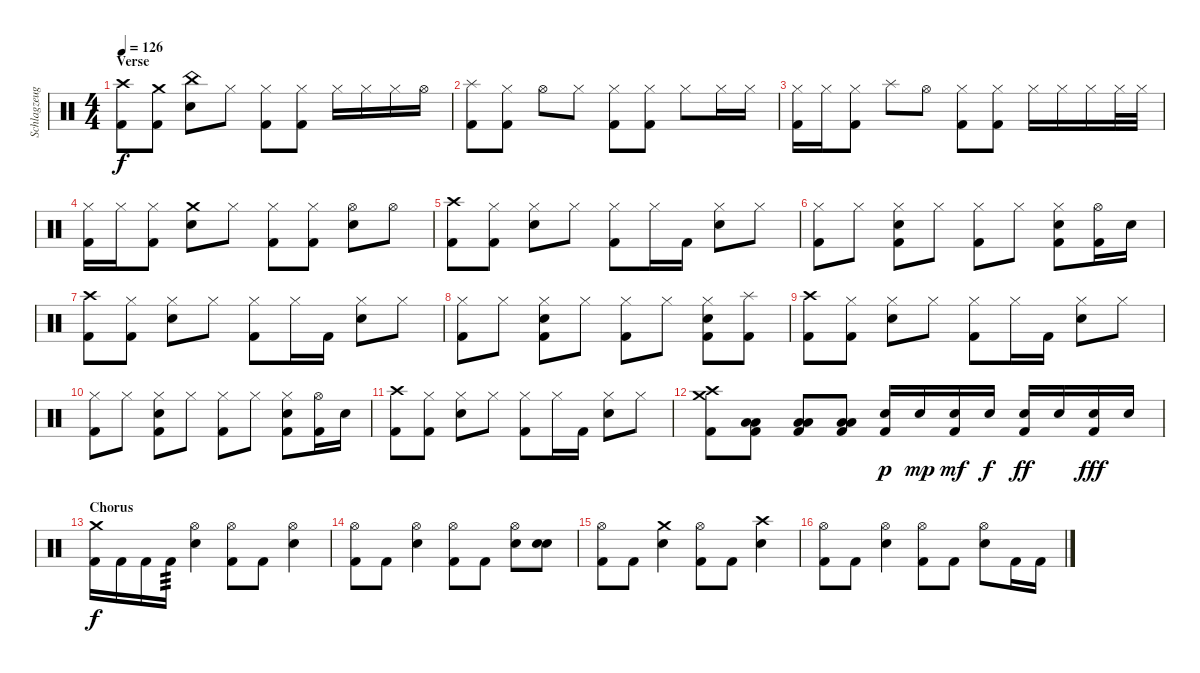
\track ("Schlagzeug" "Schlagzeug") {instrument percussion}
\staff {score}
\articulation defaults
\ts (4 4)
\section ("" "Verse")
\tempo 126
\clef neutral
\ks c
("Crash high (hit)" "Kick (hit) 2").8{dy f} ("Crash medium (hit)" "Kick (hit) 2").8 ("China (hit)" "Snare (hit) 2").8 "Hi-Hat (closed)".8 ("Hi-Hat (closed)" "Kick (hit) 2").8 ("Hi-Hat (closed)" "Kick (hit) 2").8 "Hi-Hat (closed)".16 "Hi-Hat (closed)".16 "Hi-Hat (closed)".16 "Hi-Hat (open)".16 |
("Splash (hit)" "Kick (hit) 2").8 ("Hi-Hat (closed)" "Kick (hit) 2").8 "Hi-Hat (open)".8 "Hi-Hat (closed)".8 ("Hi-Hat (closed)" "Kick (hit) 2").8 ("Hi-Hat (closed)" "Kick (hit) 2").8 "Hi-Hat (closed)".8 "Hi-Hat (closed)".16 "Hi-Hat (closed)".16 |
("Hi-Hat (closed)" "Kick (hit) 2").16 "Hi-Hat (closed)".16 ("Hi-Hat (closed)" "Kick (hit) 2").8 "Splash (hit)".8 "Hi-Hat (open)".8 ("Hi-Hat (closed)" "Kick (hit) 2").8 ("Hi-Hat (closed)" "Kick (hit) 2").8 "Hi-Hat (closed)".16 "Hi-Hat (closed)".16 "Hi-Hat (closed)".16 "Hi-Hat (closed)".32 "Hi-Hat (closed)".32 |
("Hi-Hat (closed)" "Kick (hit) 2").16 "Hi-Hat (closed)".16 ("Hi-Hat (closed)" "Kick (hit) 2").8 ("Crash medium (hit)" "Snare (hit) 2").8 "Hi-Hat (closed)".8 ("Hi-Hat (closed)" "Kick (hit) 2").8 ("Hi-Hat (closed)" "Kick (hit) 2").8 ("Hi-Hat (open)" "Snare (hit) 2").8 "Hi-Hat (open)".8 |
("Crash high (hit)" "Kick (hit) 2").8 ("Hi-Hat (closed)" "Kick (hit) 2").8 ("Hi-Hat (closed)" "Snare (hit) 2").8 "Hi-Hat (closed)".8 ("Hi-Hat (closed)" "Kick (hit) 2").8 "Hi-Hat (closed)".16 "Kick (hit) 2".16 ("Hi-Hat (closed)" "Snare (hit) 2").8 "Hi-Hat (closed)".8 |
("Hi-Hat (closed)" "Kick (hit) 2").8 "Hi-Hat (closed)".8 ("Hi-Hat (closed)" "Snare (hit) 2" "Kick (hit) 2").8 "Hi-Hat (closed)".8 ("Hi-Hat (closed)" "Kick (hit) 2").8 "Hi-Hat (closed)".8 ("Hi-Hat (closed)" "Snare (hit) 2" "Kick (hit) 2").8 ("Hi-Hat (open)" "Kick (hit) 2").16 "Snare (hit) 2".16 |
("Crash high (hit)" "Kick (hit) 2").8 ("Hi-Hat (closed)" "Kick (hit) 2").8 ("Hi-Hat (closed)" "Snare (hit) 2").8 "Hi-Hat (closed)".8 ("Hi-Hat (closed)" "Kick (hit) 2").8 "Hi-Hat (closed)".16 "Kick (hit) 2".16 ("Hi-Hat (closed)" "Snare (hit) 2").8 "Hi-Hat (closed)".8 |
("Hi-Hat (closed)" "Kick (hit) 2").8 "Hi-Hat (closed)".8 ("Hi-Hat (closed)" "Snare (hit) 2" "Kick (hit) 2").8 "Hi-Hat (closed)".8 ("Hi-Hat (closed)" "Kick (hit) 2").8 "Hi-Hat (closed)".8 ("Hi-Hat (closed)" "Snare (hit) 2" "Kick (hit) 2").8 ("Splash (hit)" "Kick (hit) 2").8 |
("Crash high (hit)" "Kick (hit) 2").8 ("Hi-Hat (closed)" "Kick (hit) 2").8 ("Hi-Hat (closed)" "Snare (hit) 2").8 "Hi-Hat (closed)".8 ("Hi-Hat (closed)" "Kick (hit) 2").8 "Hi-Hat (closed)".16 "Kick (hit) 2".16 ("Hi-Hat (closed)" "Snare (hit) 2").8 "Hi-Hat (closed)".8 |
("Hi-Hat (closed)" "Kick (hit) 2").8 "Hi-Hat (closed)".8 ("Hi-Hat (closed)" "Snare (hit) 2" "Kick (hit) 2").8 "Hi-Hat (closed)".8 ("Hi-Hat (closed)" "Kick (hit) 2").8 "Hi-Hat (closed)".8 ("Hi-Hat (closed)" "Snare (hit) 2" "Kick (hit) 2").8 ("Hi-Hat (open)" "Kick (hit) 2").16 "Snare (hit) 2".16 |
("Crash high (hit)" "Kick (hit) 2").8 ("Hi-Hat (closed)" "Kick (hit) 2").8 ("Hi-Hat (closed)" "Snare (hit) 2").8 "Hi-Hat (closed)".8 ("Hi-Hat (closed)" "Kick (hit) 2").8 "Hi-Hat (closed)".16 "Kick (hit) 2".16 ("Hi-Hat (closed)" "Snare (hit) 2").8 "Hi-Hat (closed)".8 |
("Crash high (hit)" "Crash medium (hit)" "Kick (hit) 2").8 ("Low Tom (hit)" "Low Floor Tom (hit)" "Kick (hit) 2").8 ("Low Tom (hit)" "Low Floor Tom (hit)" "Kick (hit) 2").8 ("Low Tom (hit)" "Low Floor Tom (hit)" "Kick (hit) 2").8 ("Snare (hit) 2" "Kick (hit) 2").16{dy p} "Snare (hit) 2".16{dy mp} ("Snare (hit) 2" "Kick (hit) 2").16{dy mf} "Snare (hit) 2".16{dy f} ("Snare (hit) 2" "Kick (hit) 2").16{dy ff} "Snare (hit) 2".16 ("Snare (hit) 2" "Kick (hit) 2").16{dy fff} "Snare (hit) 2".16 |
\section ("" "Chorus")
("Crash medium (hit)" "Kick (hit) 2").16{dy f} "Kick (hit) 2".16 "Kick (hit) 2".16 "Kick (hit) 2".16{tp 3} ("Hi-Hat (open)" "Snare (hit) 2").4 ("Hi-Hat (open)" "Kick (hit) 2").8 "Kick (hit) 2".8 ("Hi-Hat (open)" "Snare (hit) 2").4 |
("Hi-Hat (open)" "Kick (hit) 2").8 "Kick (hit) 2".8 ("Hi-Hat (open)" "Snare (hit) 2").4 ("Hi-Hat (open)" "Kick (hit) 2").8 "Kick (hit) 2".8 ("Hi-Hat (open)" "Snare (hit) 2").8 ("Snare (hit) 2" "Snare (hit) 2").8 |
("Hi-Hat (open)" "Kick (hit) 2").8 "Kick (hit) 2".8 ("Crash medium (hit)" "Snare (hit) 2").4 ("Hi-Hat (open)" "Kick (hit) 2").8 "Kick (hit) 2".8 ("Crash high (hit)" "Snare (hit) 2").4 |
("Hi-Hat (open)" "Kick (hit) 2").8 "Kick (hit) 2".8 ("Hi-Hat (open)" "Snare (hit) 2").4 ("Hi-Hat (open)" "Kick (hit) 2").8 "Kick (hit) 2".8 ("Hi-Hat (open)" "Snare (hit) 2").8 "Kick (hit) 2".16 "Kick (hit) 2".16
